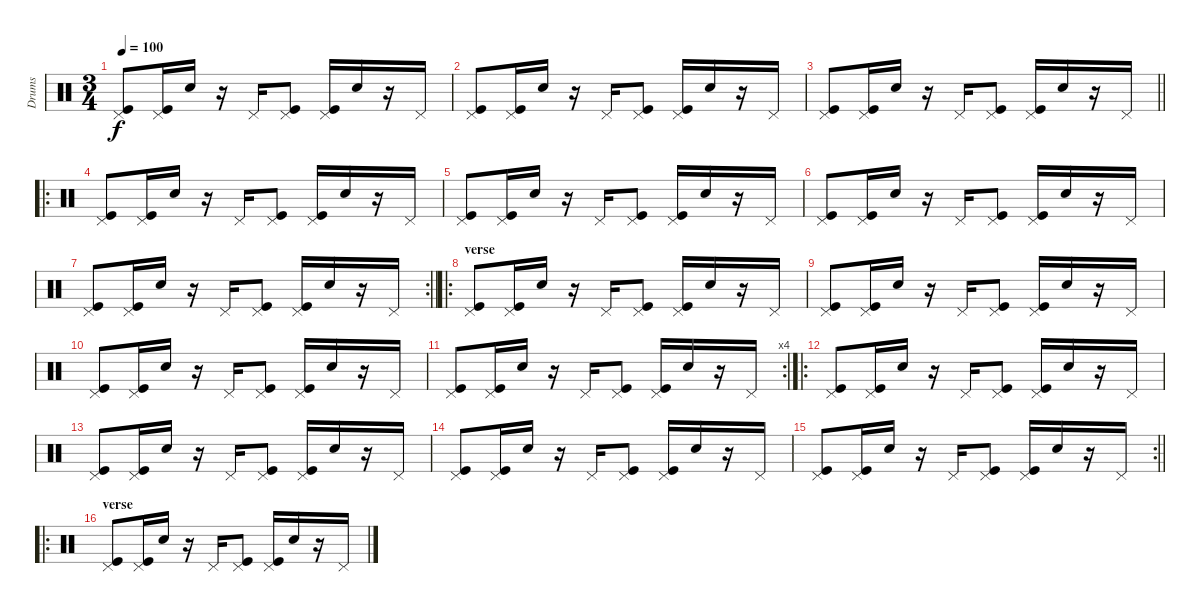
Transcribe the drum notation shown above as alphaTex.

\track ("Drums" "Drums") {instrument percussion}
\staff {score}
\articulation defaults
\ts (3 4)
\tempo 100
\clef neutral
\ks c
("Pedal Hi-Hat (hit)" "Kick (hit)").8{dy f} ("Pedal Hi-Hat (hit)" "Kick (hit)").16 "Snare (hit) 2".16 r.16 "Pedal Hi-Hat (hit)".16 ("Pedal Hi-Hat (hit)" "Kick (hit)").8 ("Pedal Hi-Hat (hit)" "Kick (hit)").16 "Snare (hit) 2".16 r.16 "Pedal Hi-Hat (hit)".16 |
("Pedal Hi-Hat (hit)" "Kick (hit)").8 ("Pedal Hi-Hat (hit)" "Kick (hit)").16 "Snare (hit) 2".16 r.16 "Pedal Hi-Hat (hit)".16 ("Pedal Hi-Hat (hit)" "Kick (hit)").8 ("Pedal Hi-Hat (hit)" "Kick (hit)").16 "Snare (hit) 2".16 r.16 "Pedal Hi-Hat (hit)".16 |
\barLineRight lightlight
("Pedal Hi-Hat (hit)" "Kick (hit)").8 ("Pedal Hi-Hat (hit)" "Kick (hit)").16 "Snare (hit) 2".16 r.16 "Pedal Hi-Hat (hit)".16 ("Pedal Hi-Hat (hit)" "Kick (hit)").8 ("Pedal Hi-Hat (hit)" "Kick (hit)").16 "Snare (hit) 2".16 r.16 "Pedal Hi-Hat (hit)".16 |
\ro
("Pedal Hi-Hat (hit)" "Kick (hit)").8 ("Pedal Hi-Hat (hit)" "Kick (hit)").16 "Snare (hit) 2".16 r.16 "Pedal Hi-Hat (hit)".16 ("Pedal Hi-Hat (hit)" "Kick (hit)").8 ("Pedal Hi-Hat (hit)" "Kick (hit)").16 "Snare (hit) 2".16 r.16 "Pedal Hi-Hat (hit)".16 |
("Pedal Hi-Hat (hit)" "Kick (hit)").8 ("Pedal Hi-Hat (hit)" "Kick (hit)").16 "Snare (hit) 2".16 r.16 "Pedal Hi-Hat (hit)".16 ("Pedal Hi-Hat (hit)" "Kick (hit)").8 ("Pedal Hi-Hat (hit)" "Kick (hit)").16 "Snare (hit) 2".16 r.16 "Pedal Hi-Hat (hit)".16 |
("Pedal Hi-Hat (hit)" "Kick (hit)").8 ("Pedal Hi-Hat (hit)" "Kick (hit)").16 "Snare (hit) 2".16 r.16 "Pedal Hi-Hat (hit)".16 ("Pedal Hi-Hat (hit)" "Kick (hit)").8 ("Pedal Hi-Hat (hit)" "Kick (hit)").16 "Snare (hit) 2".16 r.16 "Pedal Hi-Hat (hit)".16 |
\rc 2
\barLineRight lightlight
("Pedal Hi-Hat (hit)" "Kick (hit)").8 ("Pedal Hi-Hat (hit)" "Kick (hit)").16 "Snare (hit) 2".16 r.16 "Pedal Hi-Hat (hit)".16 ("Pedal Hi-Hat (hit)" "Kick (hit)").8 ("Pedal Hi-Hat (hit)" "Kick (hit)").16 "Snare (hit) 2".16 r.16 "Pedal Hi-Hat (hit)".16 |
\ro
\section ("" "verse")
("Pedal Hi-Hat (hit)" "Kick (hit)").8 ("Pedal Hi-Hat (hit)" "Kick (hit)").16 "Snare (hit) 2".16 r.16 "Pedal Hi-Hat (hit)".16 ("Pedal Hi-Hat (hit)" "Kick (hit)").8 ("Pedal Hi-Hat (hit)" "Kick (hit)").16 "Snare (hit) 2".16 r.16 "Pedal Hi-Hat (hit)".16 |
("Pedal Hi-Hat (hit)" "Kick (hit)").8 ("Pedal Hi-Hat (hit)" "Kick (hit)").16 "Snare (hit) 2".16 r.16 "Pedal Hi-Hat (hit)".16 ("Pedal Hi-Hat (hit)" "Kick (hit)").8 ("Pedal Hi-Hat (hit)" "Kick (hit)").16 "Snare (hit) 2".16 r.16 "Pedal Hi-Hat (hit)".16 |
("Pedal Hi-Hat (hit)" "Kick (hit)").8 ("Pedal Hi-Hat (hit)" "Kick (hit)").16 "Snare (hit) 2".16 r.16 "Pedal Hi-Hat (hit)".16 ("Pedal Hi-Hat (hit)" "Kick (hit)").8 ("Pedal Hi-Hat (hit)" "Kick (hit)").16 "Snare (hit) 2".16 r.16 "Pedal Hi-Hat (hit)".16 |
\rc 4
("Pedal Hi-Hat (hit)" "Kick (hit)").8 ("Pedal Hi-Hat (hit)" "Kick (hit)").16 "Snare (hit) 2".16 r.16 "Pedal Hi-Hat (hit)".16 ("Pedal Hi-Hat (hit)" "Kick (hit)").8 ("Pedal Hi-Hat (hit)" "Kick (hit)").16 "Snare (hit) 2".16 r.16 "Pedal Hi-Hat (hit)".16 |
\ro
("Pedal Hi-Hat (hit)" "Kick (hit)").8 ("Pedal Hi-Hat (hit)" "Kick (hit)").16 "Snare (hit) 2".16 r.16 "Pedal Hi-Hat (hit)".16 ("Pedal Hi-Hat (hit)" "Kick (hit)").8 ("Pedal Hi-Hat (hit)" "Kick (hit)").16 "Snare (hit) 2".16 r.16 "Pedal Hi-Hat (hit)".16 |
("Pedal Hi-Hat (hit)" "Kick (hit)").8 ("Pedal Hi-Hat (hit)" "Kick (hit)").16 "Snare (hit) 2".16 r.16 "Pedal Hi-Hat (hit)".16 ("Pedal Hi-Hat (hit)" "Kick (hit)").8 ("Pedal Hi-Hat (hit)" "Kick (hit)").16 "Snare (hit) 2".16 r.16 "Pedal Hi-Hat (hit)".16 |
("Pedal Hi-Hat (hit)" "Kick (hit)").8 ("Pedal Hi-Hat (hit)" "Kick (hit)").16 "Snare (hit) 2".16 r.16 "Pedal Hi-Hat (hit)".16 ("Pedal Hi-Hat (hit)" "Kick (hit)").8 ("Pedal Hi-Hat (hit)" "Kick (hit)").16 "Snare (hit) 2".16 r.16 "Pedal Hi-Hat (hit)".16 |
\rc 2
\barLineRight lightlight
("Pedal Hi-Hat (hit)" "Kick (hit)").8 ("Pedal Hi-Hat (hit)" "Kick (hit)").16 "Snare (hit) 2".16 r.16 "Pedal Hi-Hat (hit)".16 ("Pedal Hi-Hat (hit)" "Kick (hit)").8 ("Pedal Hi-Hat (hit)" "Kick (hit)").16 "Snare (hit) 2".16 r.16 "Pedal Hi-Hat (hit)".16 |
\ro
\section ("" "verse")
("Pedal Hi-Hat (hit)" "Kick (hit)").8 ("Pedal Hi-Hat (hit)" "Kick (hit)").16 "Snare (hit) 2".16 r.16 "Pedal Hi-Hat (hit)".16 ("Pedal Hi-Hat (hit)" "Kick (hit)").8 ("Pedal Hi-Hat (hit)" "Kick (hit)").16 "Snare (hit) 2".16 r.16 "Pedal Hi-Hat (hit)".16
